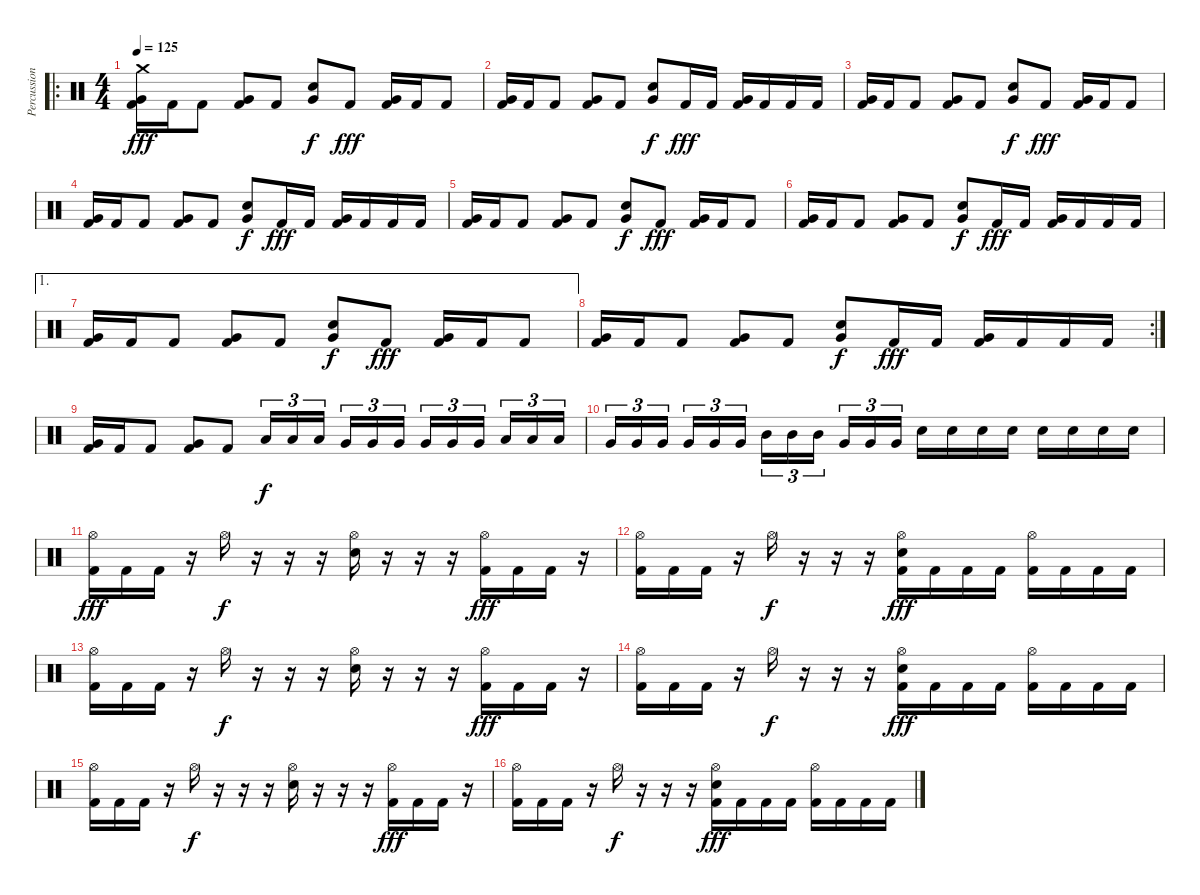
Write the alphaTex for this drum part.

\track ("Percussion" "Percussion") {instrument percussion}
\staff {score}
\articulation defaults
\ro
\ts (4 4)
\tempo 125
\clef neutral
\ks c
("Crash medium (hit)" "Very Low Tom (hit)" "Kick (hit) 2").16{dy fff} "Kick (hit) 2".16 "Kick (hit) 2".8 ("Very Low Tom (hit)" "Kick (hit) 2").8 "Kick (hit) 2".8 ("Very Low Tom (hit)" "Electric Snare (hit)").8{dy f} "Kick (hit) 2".8{dy fff} ("Very Low Tom (hit)" "Kick (hit) 2").16 "Kick (hit) 2".16 "Kick (hit) 2".8 |
("Very Low Tom (hit)" "Kick (hit) 2").16 "Kick (hit) 2".16 "Kick (hit) 2".8 ("Very Low Tom (hit)" "Kick (hit) 2").8 "Kick (hit) 2".8 ("Very Low Tom (hit)" "Electric Snare (hit)").8{dy f} "Kick (hit) 2".16{dy fff} "Kick (hit) 2".16 ("Very Low Tom (hit)" "Kick (hit) 2").16 "Kick (hit) 2".16 "Kick (hit) 2".16 "Kick (hit) 2".16 |
("Very Low Tom (hit)" "Kick (hit) 2").16 "Kick (hit) 2".16 "Kick (hit) 2".8 ("Very Low Tom (hit)" "Kick (hit) 2").8 "Kick (hit) 2".8 ("Very Low Tom (hit)" "Electric Snare (hit)").8{dy f} "Kick (hit) 2".8{dy fff} ("Very Low Tom (hit)" "Kick (hit) 2").16 "Kick (hit) 2".16 "Kick (hit) 2".8 |
("Very Low Tom (hit)" "Kick (hit) 2").16 "Kick (hit) 2".16 "Kick (hit) 2".8 ("Very Low Tom (hit)" "Kick (hit) 2").8 "Kick (hit) 2".8 ("Very Low Tom (hit)" "Electric Snare (hit)").8{dy f} "Kick (hit) 2".16{dy fff} "Kick (hit) 2".16 ("Very Low Tom (hit)" "Kick (hit) 2").16 "Kick (hit) 2".16 "Kick (hit) 2".16 "Kick (hit) 2".16 |
("Very Low Tom (hit)" "Kick (hit) 2").16 "Kick (hit) 2".16 "Kick (hit) 2".8 ("Very Low Tom (hit)" "Kick (hit) 2").8 "Kick (hit) 2".8 ("Very Low Tom (hit)" "Electric Snare (hit)").8{dy f} "Kick (hit) 2".8{dy fff} ("Very Low Tom (hit)" "Kick (hit) 2").16 "Kick (hit) 2".16 "Kick (hit) 2".8 |
("Very Low Tom (hit)" "Kick (hit) 2").16 "Kick (hit) 2".16 "Kick (hit) 2".8 ("Very Low Tom (hit)" "Kick (hit) 2").8 "Kick (hit) 2".8 ("Very Low Tom (hit)" "Electric Snare (hit)").8{dy f} "Kick (hit) 2".16{dy fff} "Kick (hit) 2".16 ("Very Low Tom (hit)" "Kick (hit) 2").16 "Kick (hit) 2".16 "Kick (hit) 2".16 "Kick (hit) 2".16 |
\ae 1
("Very Low Tom (hit)" "Kick (hit) 2").16 "Kick (hit) 2".16 "Kick (hit) 2".8 ("Very Low Tom (hit)" "Kick (hit) 2").8 "Kick (hit) 2".8 ("Very Low Tom (hit)" "Electric Snare (hit)").8{dy f} "Kick (hit) 2".8{dy fff} ("Very Low Tom (hit)" "Kick (hit) 2").16 "Kick (hit) 2".16 "Kick (hit) 2".8 |
\rc 2
("Very Low Tom (hit)" "Kick (hit) 2").16 "Kick (hit) 2".16 "Kick (hit) 2".8 ("Very Low Tom (hit)" "Kick (hit) 2").8 "Kick (hit) 2".8 ("Very Low Tom (hit)" "Electric Snare (hit)").8{dy f} "Kick (hit) 2".16{dy fff} "Kick (hit) 2".16 ("Very Low Tom (hit)" "Kick (hit) 2").16 "Kick (hit) 2".16 "Kick (hit) 2".16 "Kick (hit) 2".16 |
("Very Low Tom (hit)" "Kick (hit) 2").16 "Kick (hit) 2".16 "Kick (hit) 2".8 ("Very Low Tom (hit)" "Kick (hit) 2").8 "Kick (hit) 2".8 "Low Tom (hit)".16{tu (3 2) dy f} "Low Tom (hit)".16{tu (3 2)} "Low Tom (hit)".16{tu (3 2)} "Very Low Tom (hit)".16{tu (3 2)} "Very Low Tom (hit)".16{tu (3 2)} "Very Low Tom (hit)".16{tu (3 2)} "Very Low Tom (hit)".16{tu (3 2)} "Very Low Tom (hit)".16{tu (3 2)} "Very Low Tom (hit)".16{tu (3 2)} "Low Tom (hit)".16{tu (3 2)} "Low Tom (hit)".16{tu (3 2)} "Low Tom (hit)".16{tu (3 2)} |
"Very Low Tom (hit)".16{tu (3 2)} "Very Low Tom (hit)".16{tu (3 2)} "Very Low Tom (hit)".16{tu (3 2)} "Very Low Tom (hit)".16{tu (3 2)} "Very Low Tom (hit)".16{tu (3 2)} "Very Low Tom (hit)".16{tu (3 2)} "Mid Tom (hit)".16{tu (3 2)} "Mid Tom (hit)".16{tu (3 2)} "Mid Tom (hit)".16{tu (3 2)} "Very Low Tom (hit)".16{tu (3 2)} "Very Low Tom (hit)".16{tu (3 2)} "Very Low Tom (hit)".16{tu (3 2)} "Electric Snare (hit)".16 "Electric Snare (hit)".16 "Electric Snare (hit)".16 "Electric Snare (hit)".16 "Electric Snare (hit)".16 "Electric Snare (hit)".16 "Electric Snare (hit)".16 "Electric Snare (hit)".16 |
("Hi-Hat (open)" "Kick (hit) 2").16{dy fff} "Kick (hit) 2".16 "Kick (hit) 2".16 r.16 "Hi-Hat (open)".16{dy f} r.16 r.16 r.16 ("Hi-Hat (open)" "Electric Snare (hit)").16 r.16 r.16 r.16 ("Hi-Hat (open)" "Kick (hit) 2").16{dy fff} "Kick (hit) 2".16 "Kick (hit) 2".16 r.16 |
("Hi-Hat (open)" "Kick (hit) 2").16 "Kick (hit) 2".16 "Kick (hit) 2".16 r.16 "Hi-Hat (open)".16{dy f} r.16 r.16 r.16 ("Hi-Hat (open)" "Electric Snare (hit)" "Kick (hit) 2").16{dy fff} "Kick (hit) 2".16 "Kick (hit) 2".16 "Kick (hit) 2".16 ("Hi-Hat (open)" "Kick (hit) 2").16 "Kick (hit) 2".16 "Kick (hit) 2".16 "Kick (hit) 2".16 |
("Hi-Hat (open)" "Kick (hit) 2").16 "Kick (hit) 2".16 "Kick (hit) 2".16 r.16 "Hi-Hat (open)".16{dy f} r.16 r.16 r.16 ("Hi-Hat (open)" "Electric Snare (hit)").16 r.16 r.16 r.16 ("Hi-Hat (open)" "Kick (hit) 2").16{dy fff} "Kick (hit) 2".16 "Kick (hit) 2".16 r.16 |
("Hi-Hat (open)" "Kick (hit) 2").16 "Kick (hit) 2".16 "Kick (hit) 2".16 r.16 "Hi-Hat (open)".16{dy f} r.16 r.16 r.16 ("Hi-Hat (open)" "Electric Snare (hit)" "Kick (hit) 2").16{dy fff} "Kick (hit) 2".16 "Kick (hit) 2".16 "Kick (hit) 2".16 ("Hi-Hat (open)" "Kick (hit) 2").16 "Kick (hit) 2".16 "Kick (hit) 2".16 "Kick (hit) 2".16 |
("Hi-Hat (open)" "Kick (hit) 2").16 "Kick (hit) 2".16 "Kick (hit) 2".16 r.16 "Hi-Hat (open)".16{dy f} r.16 r.16 r.16 ("Hi-Hat (open)" "Electric Snare (hit)").16 r.16 r.16 r.16 ("Hi-Hat (open)" "Kick (hit) 2").16{dy fff} "Kick (hit) 2".16 "Kick (hit) 2".16 r.16 |
("Hi-Hat (open)" "Kick (hit) 2").16 "Kick (hit) 2".16 "Kick (hit) 2".16 r.16 "Hi-Hat (open)".16{dy f} r.16 r.16 r.16 ("Hi-Hat (open)" "Electric Snare (hit)" "Kick (hit) 2").16{dy fff} "Kick (hit) 2".16 "Kick (hit) 2".16 "Kick (hit) 2".16 ("Hi-Hat (open)" "Kick (hit) 2").16 "Kick (hit) 2".16 "Kick (hit) 2".16 "Kick (hit) 2".16
